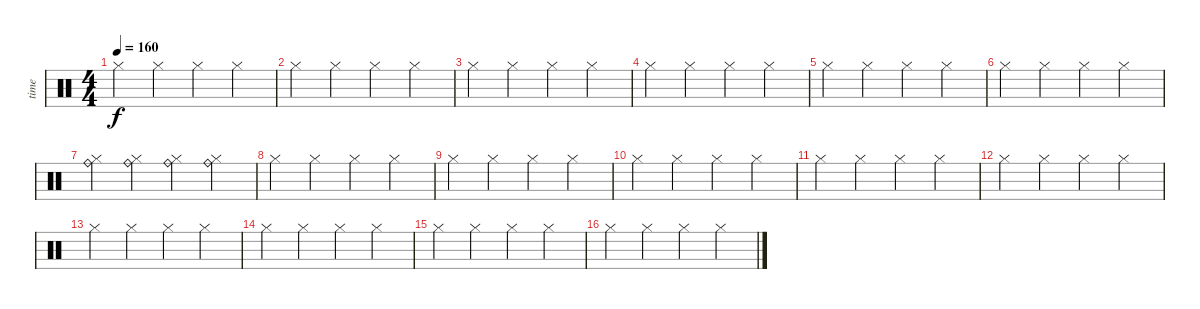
\track ("time" "time") {instrument percussion}
\staff {score}
\articulation defaults
\ts (4 4)
\tempo 160
\clef neutral
\ks c "Hi-Hat (closed)".4{dy f} "Hi-Hat (closed)".4 "Hi-Hat (closed)".4 "Hi-Hat (closed)".4
|
"Hi-Hat (closed)".4 "Hi-Hat (closed)".4 "Hi-Hat (closed)".4 "Hi-Hat (closed)".4 |
"Hi-Hat (closed)".4 "Hi-Hat (closed)".4 "Hi-Hat (closed)".4 "Hi-Hat (closed)".4 |
"Hi-Hat (closed)".4 "Hi-Hat (closed)".4 "Hi-Hat (closed)".4 "Hi-Hat (closed)".4 |
"Hi-Hat (closed)".4 "Hi-Hat (closed)".4 "Hi-Hat (closed)".4 "Hi-Hat (closed)".4 |
"Hi-Hat (closed)".4 "Hi-Hat (closed)".4 "Hi-Hat (closed)".4 "Hi-Hat (closed)".4 |
("Ride (bell)" "Hi-Hat (closed)").4 ("Ride (bell)" "Hi-Hat (closed)").4 ("Ride (bell)" "Hi-Hat (closed)").4 ("Ride (bell)" "Hi-Hat (closed)").4 |
"Hi-Hat (closed)".4 "Hi-Hat (closed)".4 "Hi-Hat (closed)".4 "Hi-Hat (closed)".4 |
"Hi-Hat (closed)".4 "Hi-Hat (closed)".4 "Hi-Hat (closed)".4 "Hi-Hat (closed)".4 |
"Hi-Hat (closed)".4 "Hi-Hat (closed)".4 "Hi-Hat (closed)".4 "Hi-Hat (closed)".4 |
"Hi-Hat (closed)".4 "Hi-Hat (closed)".4 "Hi-Hat (closed)".4 "Hi-Hat (closed)".4 |
"Hi-Hat (closed)".4 "Hi-Hat (closed)".4 "Hi-Hat (closed)".4 "Hi-Hat (closed)".4 |
"Hi-Hat (closed)".4 "Hi-Hat (closed)".4 "Hi-Hat (closed)".4 "Hi-Hat (closed)".4 |
"Hi-Hat (closed)".4 "Hi-Hat (closed)".4 "Hi-Hat (closed)".4 "Hi-Hat (closed)".4 |
"Hi-Hat (closed)".4 "Hi-Hat (closed)".4 "Hi-Hat (closed)".4 "Hi-Hat (closed)".4 |
"Hi-Hat (closed)".4 "Hi-Hat (closed)".4 "Hi-Hat (closed)".4 "Hi-Hat (closed)".4
